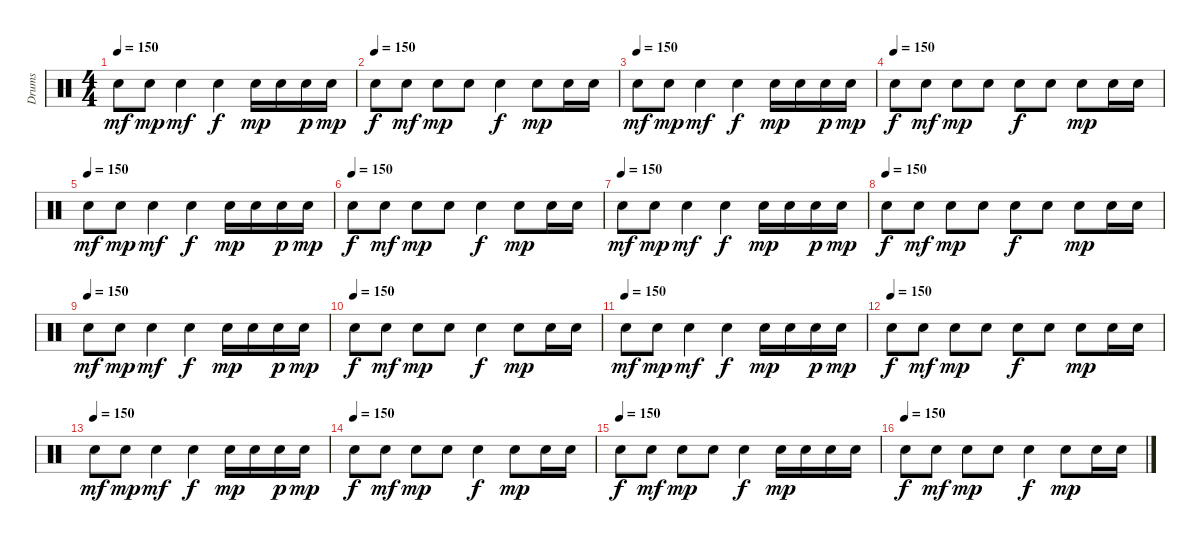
\track ("Drums" "Drums") {instrument percussion}
\staff {score}
\articulation defaults
\ts (4 4)
\tempo 150
\clef neutral
\ks c "Electric Snare (hit)".8{dy mf} "Electric Snare (hit)".8{dy mp} "Electric Snare (hit)".4{dy mf} "Electric Snare (hit)".4{dy f} "Electric Snare (hit)".16{dy mp} "Electric Snare (hit)".16 "Electric Snare (hit)".16{dy p} "Electric Snare (hit)".16{dy mp}
|
\tempo (150)
"Electric Snare (hit)".8{dy f} "Electric Snare (hit)".8{dy mf} "Electric Snare (hit)".8{dy mp} "Electric Snare (hit)".8 "Electric Snare (hit)".4{dy f} "Electric Snare (hit)".8{dy mp} "Electric Snare (hit)".16 "Electric Snare (hit)".16 |
\tempo (150)
"Electric Snare (hit)".8{dy mf} "Electric Snare (hit)".8{dy mp} "Electric Snare (hit)".4{dy mf} "Electric Snare (hit)".4{dy f} "Electric Snare (hit)".16{dy mp} "Electric Snare (hit)".16 "Electric Snare (hit)".16{dy p} "Electric Snare (hit)".16{dy mp} |
\tempo (150)
"Electric Snare (hit)".8{dy f} "Electric Snare (hit)".8{dy mf} "Electric Snare (hit)".8{dy mp} "Electric Snare (hit)".8 "Electric Snare (hit)".8{dy f} "Electric Snare (hit)".8 "Electric Snare (hit)".8{dy mp} "Electric Snare (hit)".16 "Electric Snare (hit)".16 |
\tempo (150)
"Electric Snare (hit)".8{dy mf} "Electric Snare (hit)".8{dy mp} "Electric Snare (hit)".4{dy mf} "Electric Snare (hit)".4{dy f} "Electric Snare (hit)".16{dy mp} "Electric Snare (hit)".16 "Electric Snare (hit)".16{dy p} "Electric Snare (hit)".16{dy mp} |
\tempo (150)
"Electric Snare (hit)".8{dy f} "Electric Snare (hit)".8{dy mf} "Electric Snare (hit)".8{dy mp} "Electric Snare (hit)".8 "Electric Snare (hit)".4{dy f} "Electric Snare (hit)".8{dy mp} "Electric Snare (hit)".16 "Electric Snare (hit)".16 |
\tempo (150)
"Electric Snare (hit)".8{dy mf} "Electric Snare (hit)".8{dy mp} "Electric Snare (hit)".4{dy mf} "Electric Snare (hit)".4{dy f} "Electric Snare (hit)".16{dy mp} "Electric Snare (hit)".16 "Electric Snare (hit)".16{dy p} "Electric Snare (hit)".16{dy mp} |
\tempo (150)
"Electric Snare (hit)".8{dy f} "Electric Snare (hit)".8{dy mf} "Electric Snare (hit)".8{dy mp} "Electric Snare (hit)".8 "Electric Snare (hit)".8{dy f} "Electric Snare (hit)".8 "Electric Snare (hit)".8{dy mp} "Electric Snare (hit)".16 "Electric Snare (hit)".16 |
\tempo (150)
"Electric Snare (hit)".8{dy mf} "Electric Snare (hit)".8{dy mp} "Electric Snare (hit)".4{dy mf} "Electric Snare (hit)".4{dy f} "Electric Snare (hit)".16{dy mp} "Electric Snare (hit)".16 "Electric Snare (hit)".16{dy p} "Electric Snare (hit)".16{dy mp} |
\tempo (150)
"Electric Snare (hit)".8{dy f} "Electric Snare (hit)".8{dy mf} "Electric Snare (hit)".8{dy mp} "Electric Snare (hit)".8 "Electric Snare (hit)".4{dy f} "Electric Snare (hit)".8{dy mp} "Electric Snare (hit)".16 "Electric Snare (hit)".16 |
\tempo (150)
"Electric Snare (hit)".8{dy mf} "Electric Snare (hit)".8{dy mp} "Electric Snare (hit)".4{dy mf} "Electric Snare (hit)".4{dy f} "Electric Snare (hit)".16{dy mp} "Electric Snare (hit)".16 "Electric Snare (hit)".16{dy p} "Electric Snare (hit)".16{dy mp} |
\tempo (150)
"Electric Snare (hit)".8{dy f} "Electric Snare (hit)".8{dy mf} "Electric Snare (hit)".8{dy mp} "Electric Snare (hit)".8 "Electric Snare (hit)".8{dy f} "Electric Snare (hit)".8 "Electric Snare (hit)".8{dy mp} "Electric Snare (hit)".16 "Electric Snare (hit)".16 |
\tempo (150)
"Electric Snare (hit)".8{dy mf} "Electric Snare (hit)".8{dy mp} "Electric Snare (hit)".4{dy mf} "Electric Snare (hit)".4{dy f} "Electric Snare (hit)".16{dy mp} "Electric Snare (hit)".16 "Electric Snare (hit)".16{dy p} "Electric Snare (hit)".16{dy mp} |
\tempo (150)
"Electric Snare (hit)".8{dy f} "Electric Snare (hit)".8{dy mf} "Electric Snare (hit)".8{dy mp} "Electric Snare (hit)".8 "Electric Snare (hit)".4{dy f} "Electric Snare (hit)".8{dy mp} "Electric Snare (hit)".16 "Electric Snare (hit)".16 |
\tempo (150)
"Electric Snare (hit)".8{dy f} "Electric Snare (hit)".8{dy mf} "Electric Snare (hit)".8{dy mp} "Electric Snare (hit)".8 "Electric Snare (hit)".4{dy f} "Electric Snare (hit)".16{dy mp} "Electric Snare (hit)".16 "Electric Snare (hit)".16 "Electric Snare (hit)".16 |
\tempo (150)
"Electric Snare (hit)".8{dy f} "Electric Snare (hit)".8{dy mf} "Electric Snare (hit)".8{dy mp} "Electric Snare (hit)".8 "Electric Snare (hit)".4{dy f} "Electric Snare (hit)".8{dy mp} "Electric Snare (hit)".16 "Electric Snare (hit)".16
